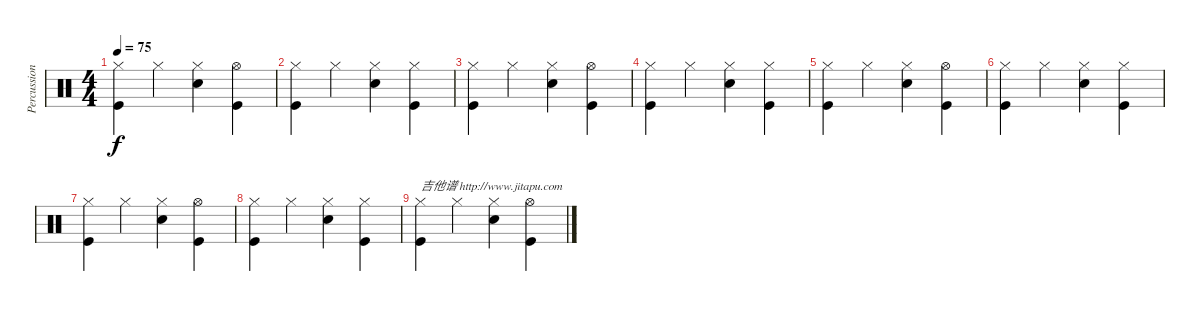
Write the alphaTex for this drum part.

\track ("Percussion" "Percussion") {instrument percussion}
\staff {score}
\articulation defaults
\ts (4 4)
\tempo 75
\clef neutral
\ks c
("Kick (hit)" "Hi-Hat (closed)").4{dy f} "Hi-Hat (closed)".4 ("Hi-Hat (closed)" "Snare (hit) 2").4 ("Hi-Hat (open)" "Kick (hit)").4 |
("Kick (hit)" "Hi-Hat (closed)").4 "Hi-Hat (closed)".4 ("Hi-Hat (closed)" "Snare (hit) 2").4 ("Hi-Hat (closed)" "Kick (hit)").4 |
("Kick (hit)" "Hi-Hat (closed)").4 "Hi-Hat (closed)".4 ("Hi-Hat (closed)" "Snare (hit) 2").4 ("Hi-Hat (open)" "Kick (hit)").4 |
("Kick (hit)" "Hi-Hat (closed)").4 "Hi-Hat (closed)".4 ("Hi-Hat (closed)" "Snare (hit) 2").4 ("Hi-Hat (closed)" "Kick (hit)").4 |
("Kick (hit)" "Hi-Hat (closed)").4 "Hi-Hat (closed)".4 ("Hi-Hat (closed)" "Snare (hit) 2").4 ("Hi-Hat (open)" "Kick (hit)").4 |
("Kick (hit)" "Hi-Hat (closed)").4 "Hi-Hat (closed)".4 ("Hi-Hat (closed)" "Snare (hit) 2").4 ("Hi-Hat (closed)" "Kick (hit)").4 |
("Kick (hit)" "Hi-Hat (closed)").4 "Hi-Hat (closed)".4 ("Hi-Hat (closed)" "Snare (hit) 2").4 ("Hi-Hat (open)" "Kick (hit)").4 |
("Kick (hit)" "Hi-Hat (closed)").4 "Hi-Hat (closed)".4 ("Hi-Hat (closed)" "Snare (hit) 2").4 ("Hi-Hat (closed)" "Kick (hit)").4 |
("Kick (hit)" "Hi-Hat (closed)").4{txt "吉他谱 http://www.jitapu.com"} "Hi-Hat (closed)".4 ("Hi-Hat (closed)" "Snare (hit) 2").4 ("Hi-Hat (open)" "Kick (hit)").4
